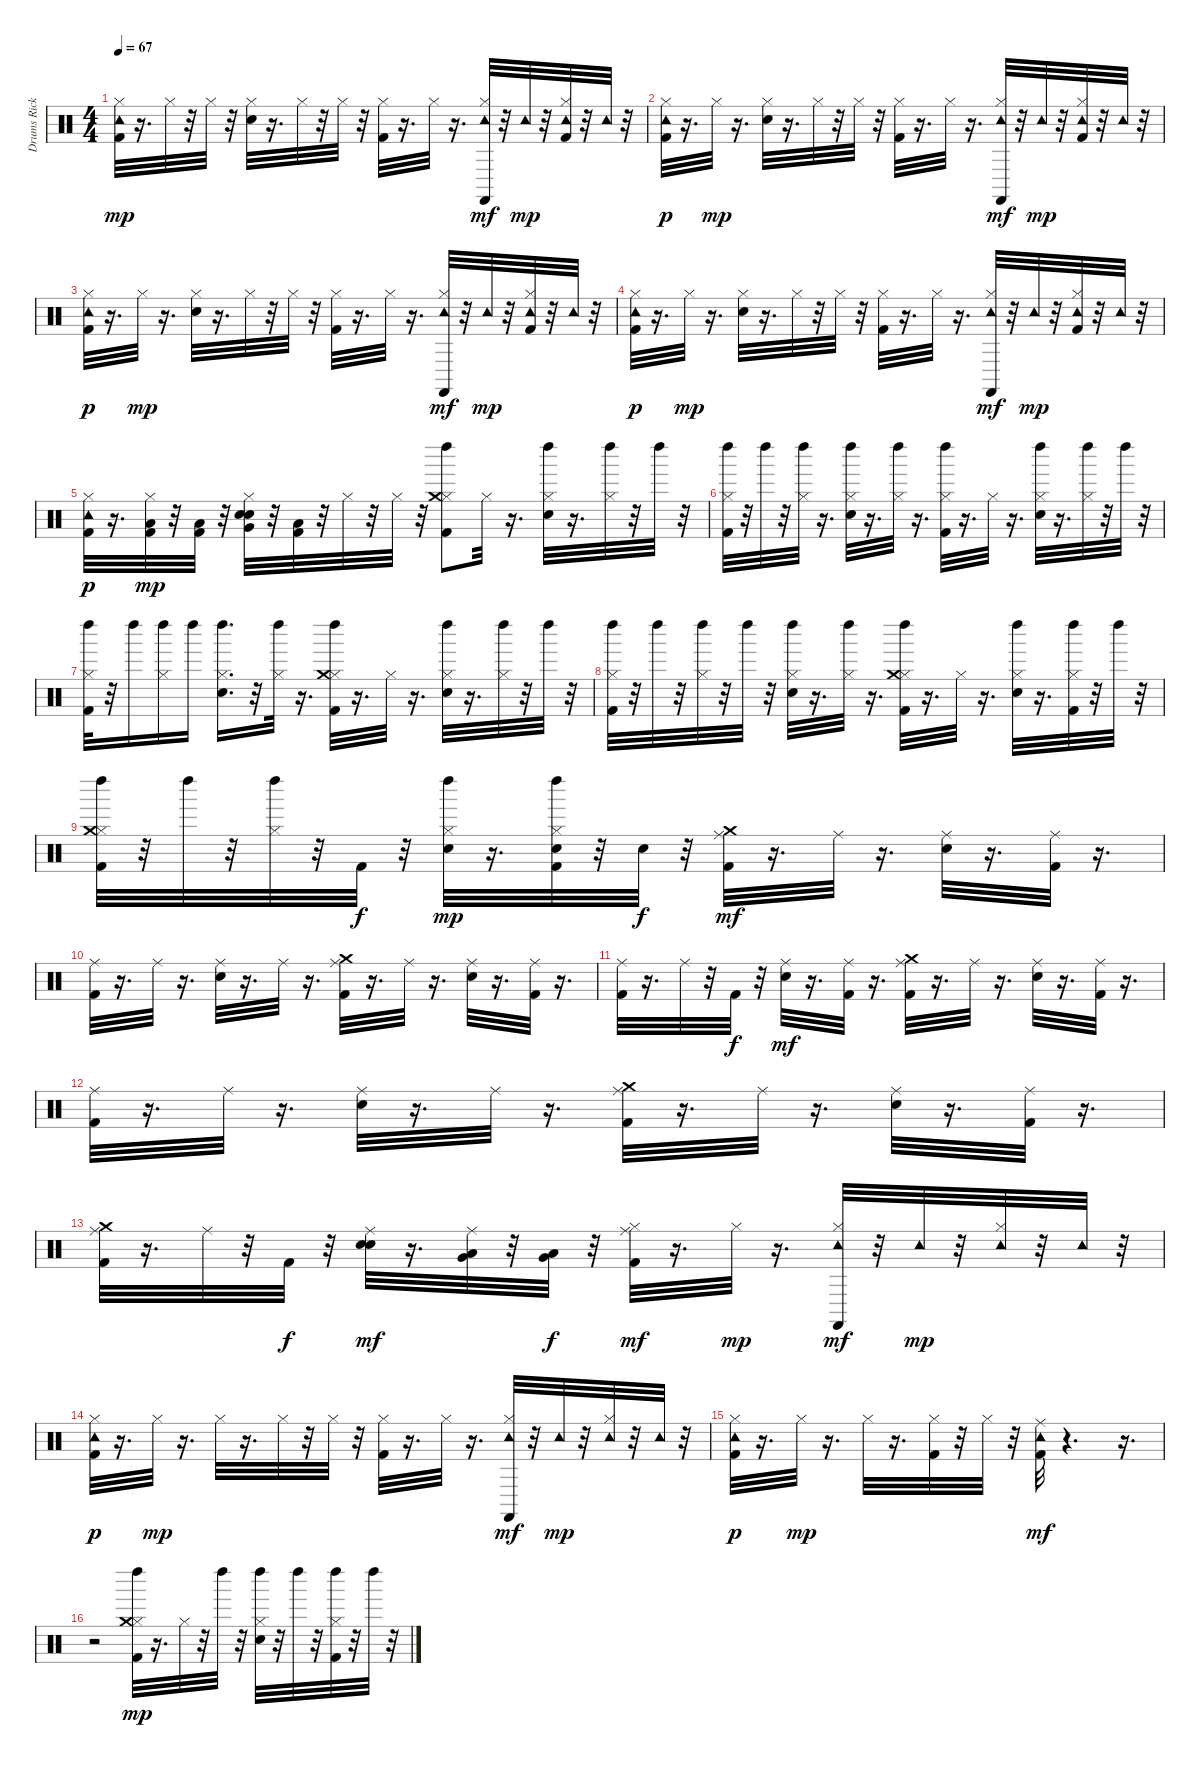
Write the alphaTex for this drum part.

\track ("Drums Rick Allen" "Drums Rick") {solo instrument percussion}
\staff {score}
\articulation defaults
\ts (4 4)
\tempo 67
\clef neutral
\ks c
("Kick (hit) 2" "Tambourine (hit)" "Hi-Hat (closed)").32{dy mp} r.16{d} "Hi-Hat (closed)".32 r.32 "Hi-Hat (closed)".32 r.32 ("Electric Snare (hit)" "Hi-Hat (closed)").32 r.16{d} "Hi-Hat (closed)".32 r.32 "Hi-Hat (closed)".32 r.32 ("Kick (hit) 2" "Hi-Hat (closed)").32 r.16{d} "Hi-Hat (closed)".32 r.16{d} ("Hi-Hat (closed)" "Tambourine (hit)" "Castanets (hit)").32{dy mf} r.32 "Tambourine (hit)".32{dy mp} r.32 ("Kick (hit) 2" "Hi-Hat (closed)" "Tambourine (hit)").32 r.32 "Tambourine (hit)".32 r.32 |
("Kick (hit) 2" "Hi-Hat (closed)" "Tambourine (hit)").32{dy p} r.16{d} "Hi-Hat (closed)".32{dy mp} r.16{d} ("Electric Snare (hit)" "Hi-Hat (closed)").32 r.16{d} "Hi-Hat (closed)".32 r.32 "Hi-Hat (closed)".32 r.32 ("Kick (hit) 2" "Hi-Hat (closed)").32 r.16{d} "Hi-Hat (closed)".32 r.16{d} ("Hi-Hat (closed)" "Tambourine (hit)" "Castanets (hit)").32{dy mf} r.32 "Tambourine (hit)".32{dy mp} r.32 ("Kick (hit) 2" "Hi-Hat (closed)" "Tambourine (hit)").32 r.32 "Tambourine (hit)".32 r.32 |
("Kick (hit) 2" "Hi-Hat (closed)" "Tambourine (hit)").32{dy p} r.16{d} "Hi-Hat (closed)".32{dy mp} r.16{d} ("Electric Snare (hit)" "Hi-Hat (closed)").32 r.16{d} "Hi-Hat (closed)".32 r.32 "Hi-Hat (closed)".32 r.32 ("Kick (hit) 2" "Hi-Hat (closed)").32 r.16{d} "Hi-Hat (closed)".32 r.16{d} ("Hi-Hat (closed)" "Tambourine (hit)" "Castanets (hit)").32{dy mf} r.32 "Tambourine (hit)".32{dy mp} r.32 ("Kick (hit) 2" "Hi-Hat (closed)" "Tambourine (hit)").32 r.32 "Tambourine (hit)".32 r.32 |
("Kick (hit) 2" "Hi-Hat (closed)" "Tambourine (hit)").32{dy p} r.16{d} "Hi-Hat (closed)".32{dy mp} r.16{d} ("Electric Snare (hit)" "Hi-Hat (closed)").32 r.16{d} "Hi-Hat (closed)".32 r.32 "Hi-Hat (closed)".32 r.32 ("Kick (hit) 2" "Hi-Hat (closed)").32 r.16{d} "Hi-Hat (closed)".32 r.16{d} ("Hi-Hat (closed)" "Tambourine (hit)" "Castanets (hit)").32{dy mf} r.32 "Tambourine (hit)".32{dy mp} r.32 ("Kick (hit) 2" "Hi-Hat (closed)" "Tambourine (hit)").32 r.32 "Tambourine (hit)".32 r.32 |
("Kick (hit) 2" "Hi-Hat (closed)" "Tambourine (hit)").32{dy p} r.16{d} ("Hi-Hat (closed)" "Kick (hit) 2" "Low Floor Tom (hit)").32{dy mp} r.32 ("Kick (hit) 2" "Low Floor Tom (hit)").32 r.32 ("Electric Snare (hit)" "Electric Snare (hit)" "Hi-Hat (closed)" "Very Low Tom (hit)").32 r.32 ("Kick (hit) 2" "Low Floor Tom (hit)").32 r.32 "Hi-Hat (closed)".32 r.32 "Hi-Hat (closed)".32 r.32 ("Hi-Hat (closed)" "Kick (hit) 2" "Crash medium (hit)" "Left Maraca (hit)").8 "Hi-Hat (closed)".32 r.16{d} ("Hi-Hat (closed)" "Electric Snare (hit)" "Left Maraca (hit)").32 r.16{d} ("Hi-Hat (closed)" "Left Maraca (hit)").32 r.32 "Left Maraca (hit)".32 r.32 |
("Hi-Hat (closed)" "Kick (hit) 2" "Left Maraca (hit)").32 r.32 "Left Maraca (hit)".32 r.32 ("Hi-Hat (closed)" "Left Maraca (hit)").32 r.16{d} ("Hi-Hat (closed)" "Electric Snare (hit)" "Left Maraca (hit)").32 r.16{d} ("Hi-Hat (closed)" "Left Maraca (hit)").32 r.16{d} ("Hi-Hat (closed)" "Kick (hit) 2" "Left Maraca (hit)").32 r.16{d} "Hi-Hat (closed)".32 r.16{d} ("Hi-Hat (closed)" "Electric Snare (hit)" "Left Maraca (hit)").32 r.16{d} ("Hi-Hat (closed)" "Left Maraca (hit)").32 r.32 "Left Maraca (hit)".32 r.32 |
("Hi-Hat (closed)" "Kick (hit) 2" "Left Maraca (hit)").32 r.32 "Left Maraca (hit)".16 ("Hi-Hat (closed)" "Left Maraca (hit)").16 "Left Maraca (hit)".16 ("Hi-Hat (closed)" "Electric Snare (hit)" "Left Maraca (hit)").16{d} r.32 ("Hi-Hat (closed)" "Left Maraca (hit)").32 r.16{d} ("Hi-Hat (closed)" "Kick (hit) 2" "Crash medium (hit)" "Left Maraca (hit)").32 r.16{d} "Hi-Hat (closed)".32 r.16{d} ("Hi-Hat (closed)" "Electric Snare (hit)" "Left Maraca (hit)").32 r.16{d} ("Hi-Hat (closed)" "Left Maraca (hit)").32 r.32 "Left Maraca (hit)".32 r.32 |
("Hi-Hat (closed)" "Kick (hit) 2" "Left Maraca (hit)").32 r.32 "Left Maraca (hit)".32 r.32 ("Hi-Hat (closed)" "Left Maraca (hit)").32 r.32 "Left Maraca (hit)".32 r.32 ("Hi-Hat (closed)" "Electric Snare (hit)" "Left Maraca (hit)").32 r.16{d} ("Hi-Hat (closed)" "Left Maraca (hit)").32 r.16{d} ("Hi-Hat (closed)" "Kick (hit) 2" "Crash medium (hit)" "Left Maraca (hit)").32 r.16{d} "Hi-Hat (closed)".32 r.16{d} ("Hi-Hat (closed)" "Electric Snare (hit)" "Left Maraca (hit)").32 r.16{d} ("Hi-Hat (closed)" "Kick (hit) 2" "Left Maraca (hit)").32 r.32 "Left Maraca (hit)".32 r.32 |
("Hi-Hat (closed)" "Kick (hit) 2" "Crash medium (hit)" "Left Maraca (hit)").32 r.32 "Left Maraca (hit)".32 r.32 ("Hi-Hat (closed)" "Left Maraca (hit)").32 r.32 "Kick (hit) 2".32{dy f} r.32 ("Hi-Hat (closed)" "Electric Snare (hit)" "Left Maraca (hit)").32{dy mp} r.16{d} ("Hi-Hat (closed)" "Kick (hit) 2" "Electric Snare (hit)" "Left Maraca (hit)").32 r.32 "Electric Snare (hit)".32{dy f} r.32 ("Kick (hit) 2" "Ride (middle)" "Crash medium (hit)").32{dy mf} r.16{d} "Ride (middle)".32 r.16{d} ("Electric Snare (hit)" "Ride (middle)").32 r.16{d} ("Kick (hit) 2" "Ride (middle)").32 r.16{d} |
("Kick (hit) 2" "Ride (middle)").32 r.16{d} "Ride (middle)".32 r.16{d} ("Electric Snare (hit)" "Ride (middle)").32 r.16{d} "Ride (middle)".32 r.16{d} ("Kick (hit) 2" "Ride (middle)" "Crash medium (hit)").32 r.16{d} "Ride (middle)".32 r.16{d} ("Electric Snare (hit)" "Ride (middle)").32 r.16{d} ("Kick (hit) 2" "Ride (middle)").32 r.16{d} |
("Kick (hit) 2" "Ride (middle)").32 r.16{d} "Ride (middle)".32 r.32 "Kick (hit) 2".32{dy f} r.32 ("Electric Snare (hit)" "Ride (middle)").32{dy mf} r.16{d} ("Kick (hit) 2" "Ride (middle)").32 r.16{d} ("Kick (hit) 2" "Ride (middle)" "Crash medium (hit)").32 r.16{d} "Ride (middle)".32 r.16{d} ("Electric Snare (hit)" "Ride (middle)").32 r.16{d} ("Kick (hit) 2" "Ride (middle)").32 r.16{d} |
("Kick (hit) 2" "Ride (middle)").32 r.16{d} "Ride (middle)".32 r.16{d} ("Electric Snare (hit)" "Ride (middle)").32 r.16{d} "Ride (middle)".32 r.16{d} ("Kick (hit) 2" "Ride (middle)" "Crash medium (hit)").32 r.16{d} "Ride (middle)".32 r.16{d} ("Electric Snare (hit)" "Ride (middle)").32 r.16{d} ("Kick (hit) 2" "Ride (middle)").32 r.16{d} |
("Kick (hit) 2" "Ride (middle)" "Crash medium (hit)").32 r.16{d} "Ride (middle)".32 r.32 "Kick (hit) 2".32{dy f} r.32 ("Electric Snare (hit)" "Electric Snare (hit)" "Ride (middle)").32{dy mf} r.16{d} ("Ride (middle)" "Low Floor Tom (hit)" "Very Low Tom (hit)").32 r.32 ("Low Floor Tom (hit)" "Very Low Tom (hit)").32{dy f} r.32 ("Kick (hit) 2" "Hi-Hat (closed)" "Ride (middle)").32{dy mf} r.16{d} "Hi-Hat (closed)".32{dy mp} r.16{d} ("Castanets (hit)" "Hi-Hat (closed)" "Tambourine (hit)").32{dy mf} r.32 "Tambourine (hit)".32{dy mp} r.32 ("Hi-Hat (closed)" "Tambourine (hit)").32 r.32 "Tambourine (hit)".32 r.32 |
("Kick (hit) 2" "Hi-Hat (closed)" "Tambourine (hit)").32{dy p} r.16{d} "Hi-Hat (closed)".32{dy mp} r.16{d} "Hi-Hat (closed)".32 r.16{d} "Hi-Hat (closed)".32 r.32 "Hi-Hat (closed)".32 r.32 ("Kick (hit) 2" "Hi-Hat (closed)").32 r.16{d} "Hi-Hat (closed)".32 r.16{d} ("Castanets (hit)" "Hi-Hat (closed)" "Tambourine (hit)").32{dy mf} r.32 "Tambourine (hit)".32{dy mp} r.32 ("Hi-Hat (closed)" "Tambourine (hit)").32 r.32 "Tambourine (hit)".32 r.32 |
("Kick (hit) 2" "Hi-Hat (closed)" "Tambourine (hit)").32{dy p} r.16{d} "Hi-Hat (closed)".32{dy mp} r.16{d} "Hi-Hat (closed)".32 r.16{d} ("Hi-Hat (closed)" "Kick (hit) 2").32 r.32 "Hi-Hat (closed)".32 r.32 ("Kick (hit) 2" "Ride (middle)" "Tambourine (hit)").32{dy mf} r.4{d} r.16{d} |
r.2 ("Kick (hit) 2" "Hi-Hat (closed)" "Crash medium (hit)" "Left Maraca (hit)").32{dy mp} r.16{d} "Hi-Hat (closed)".32 r.32 "Left Maraca (hit)".32 r.32 ("Electric Snare (hit)" "Hi-Hat (closed)" "Left Maraca (hit)").32 r.32 "Left Maraca (hit)".32 r.32 ("Kick (hit) 2" "Hi-Hat (closed)" "Left Maraca (hit)").32 r.32 "Left Maraca (hit)".32 r.32
